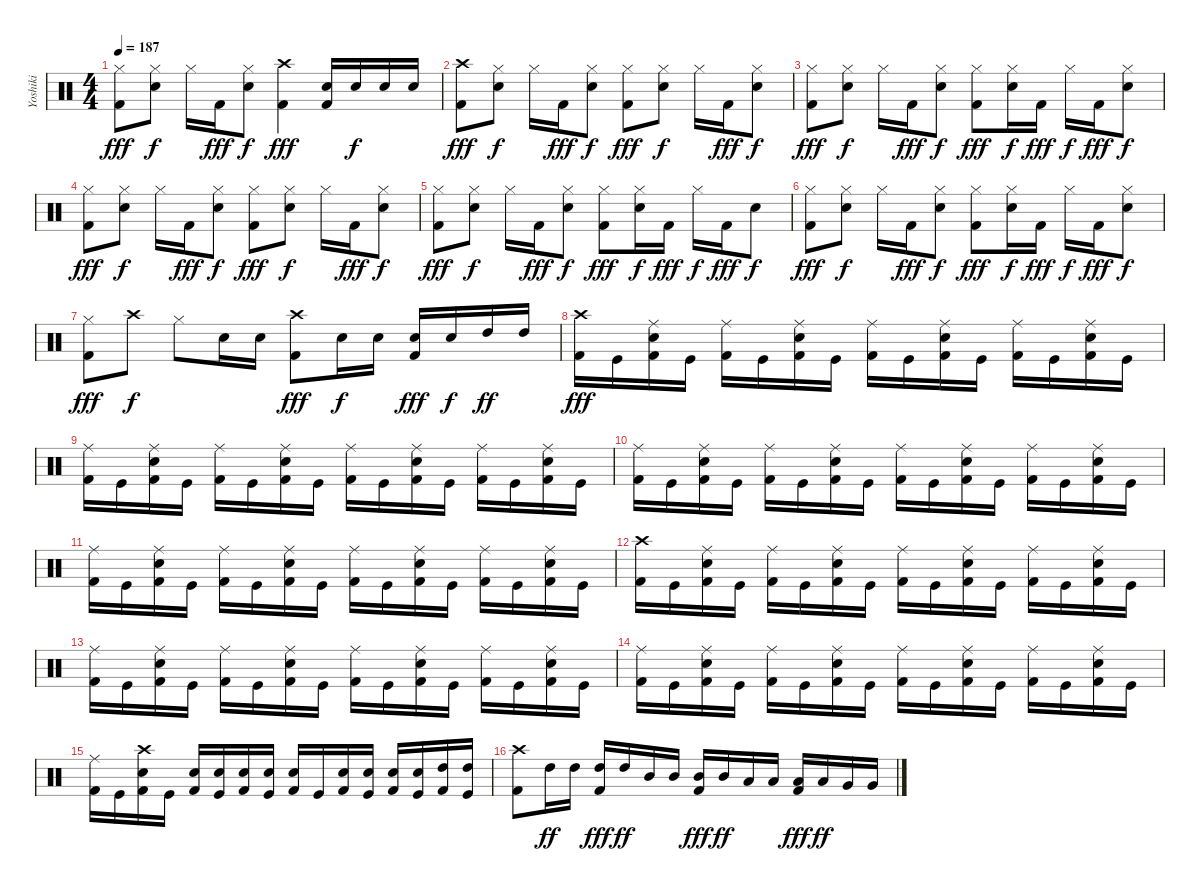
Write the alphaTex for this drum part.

\track ("Yoshiki" "Yoshiki") {instrument percussion}
\staff {score}
\articulation defaults
\ts (4 4)
\tempo 187
\clef neutral
\ks c
("Hi-Hat (closed)" "Kick (hit) 2").8{dy fff} ("Hi-Hat (closed)" "Electric Snare (hit)").8{dy f} "Hi-Hat (closed)".16 "Kick (hit) 2".16{dy fff} ("Hi-Hat (closed)" "Electric Snare (hit)").8{dy f} ("Crash high (hit)" "Kick (hit) 2").4{dy fff} ("Electric Snare (hit)" "Kick (hit) 2").16 "Electric Snare (hit)".16{dy f} "Electric Snare (hit)".16 "Electric Snare (hit)".16 |
("Crash high (hit)" "Kick (hit) 2").8{dy fff} ("Hi-Hat (closed)" "Electric Snare (hit)").8{dy f} "Hi-Hat (closed)".16 "Kick (hit) 2".16{dy fff} ("Hi-Hat (closed)" "Electric Snare (hit)").8{dy f} ("Hi-Hat (closed)" "Kick (hit) 2").8{dy fff} ("Hi-Hat (closed)" "Electric Snare (hit)").8{dy f} "Hi-Hat (closed)".16 "Kick (hit) 2".16{dy fff} ("Hi-Hat (closed)" "Electric Snare (hit)").8{dy f} |
("Hi-Hat (closed)" "Kick (hit) 2").8{dy fff} ("Hi-Hat (closed)" "Electric Snare (hit)").8{dy f} "Hi-Hat (closed)".16 "Kick (hit) 2".16{dy fff} ("Hi-Hat (closed)" "Electric Snare (hit)").8{dy f} ("Hi-Hat (closed)" "Kick (hit) 2").8{dy fff} ("Hi-Hat (closed)" "Electric Snare (hit)").16{dy f} "Kick (hit) 2".16{dy fff} "Hi-Hat (closed)".16{dy f} "Kick (hit) 2".16{dy fff} ("Hi-Hat (closed)" "Electric Snare (hit)").8{dy f} |
("Hi-Hat (closed)" "Kick (hit) 2").8{dy fff} ("Hi-Hat (closed)" "Electric Snare (hit)").8{dy f} "Hi-Hat (closed)".16 "Kick (hit) 2".16{dy fff} ("Hi-Hat (closed)" "Electric Snare (hit)").8{dy f} ("Hi-Hat (closed)" "Kick (hit) 2").8{dy fff} ("Hi-Hat (closed)" "Electric Snare (hit)").8{dy f} "Hi-Hat (closed)".16 "Kick (hit) 2".16{dy fff} ("Hi-Hat (closed)" "Electric Snare (hit)").8{dy f} |
("Hi-Hat (closed)" "Kick (hit) 2").8{dy fff} ("Hi-Hat (closed)" "Electric Snare (hit)").8{dy f} "Hi-Hat (closed)".16 "Kick (hit) 2".16{dy fff} ("Hi-Hat (closed)" "Electric Snare (hit)").8{dy f} ("Hi-Hat (closed)" "Kick (hit) 2").8{dy fff} ("Hi-Hat (closed)" "Electric Snare (hit)").16{dy f} "Kick (hit) 2".16{dy fff} "Hi-Hat (closed)".16{dy f} "Kick (hit) 2".16{dy fff} "Electric Snare (hit)".8{dy f} |
("Hi-Hat (closed)" "Kick (hit) 2").8{dy fff} ("Hi-Hat (closed)" "Electric Snare (hit)").8{dy f} "Hi-Hat (closed)".16 "Kick (hit) 2".16{dy fff} ("Hi-Hat (closed)" "Electric Snare (hit)").8{dy f} ("Hi-Hat (closed)" "Kick (hit) 2").8{dy fff} ("Hi-Hat (closed)" "Electric Snare (hit)").16{dy f} "Kick (hit) 2".16{dy fff} "Hi-Hat (closed)".16{dy f} "Kick (hit) 2".16{dy fff} ("Hi-Hat (closed)" "Electric Snare (hit)").8{dy f} |
("Hi-Hat (closed)" "Kick (hit) 2").8{dy fff} "Crash high (hit)".8{dy f} "Hi-Hat (closed)".8 "Electric Snare (hit)".16 "Electric Snare (hit)".16 ("Crash high (hit)" "Kick (hit) 2").8{dy fff} "Electric Snare (hit)".16{dy f} "Electric Snare (hit)".16 ("Electric Snare (hit)" "Kick (hit) 2").16{dy fff} "Electric Snare (hit)".16{dy f} "High Tom (hit)".16{dy ff} "High Tom (hit)".16 |
("Crash high (hit)" "Kick (hit) 2").16{dy fff} "Kick (hit)".16 ("Ride (middle)" "Electric Snare (hit)" "Kick (hit) 2").16 "Kick (hit)".16 ("Ride (middle)" "Kick (hit) 2").16 "Kick (hit)".16 ("Ride (middle)" "Electric Snare (hit)" "Kick (hit) 2").16 "Kick (hit)".16 ("Ride (middle)" "Kick (hit) 2").16 "Kick (hit)".16 ("Ride (middle)" "Electric Snare (hit)" "Kick (hit) 2").16 "Kick (hit)".16 ("Ride (middle)" "Kick (hit) 2").16 "Kick (hit)".16 ("Ride (middle)" "Electric Snare (hit)" "Kick (hit) 2").16 "Kick (hit)".16 |
("Ride (middle)" "Kick (hit) 2").16 "Kick (hit)".16 ("Ride (middle)" "Electric Snare (hit)" "Kick (hit) 2").16 "Kick (hit)".16 ("Ride (middle)" "Kick (hit) 2").16 "Kick (hit)".16 ("Ride (middle)" "Electric Snare (hit)" "Kick (hit) 2").16 "Kick (hit)".16 ("Ride (middle)" "Kick (hit) 2").16 "Kick (hit)".16 ("Ride (middle)" "Electric Snare (hit)" "Kick (hit) 2").16 "Kick (hit)".16 ("Ride (middle)" "Kick (hit) 2").16 "Kick (hit)".16 ("Ride (middle)" "Electric Snare (hit)" "Kick (hit) 2").16 "Kick (hit)".16 |
("Ride (middle)" "Kick (hit) 2").16 "Kick (hit)".16 ("Ride (middle)" "Electric Snare (hit)" "Kick (hit) 2").16 "Kick (hit)".16 ("Ride (middle)" "Kick (hit) 2").16 "Kick (hit)".16 ("Ride (middle)" "Electric Snare (hit)" "Kick (hit) 2").16 "Kick (hit)".16 ("Ride (middle)" "Kick (hit) 2").16 "Kick (hit)".16 ("Ride (middle)" "Electric Snare (hit)" "Kick (hit) 2").16 "Kick (hit)".16 ("Ride (middle)" "Kick (hit) 2").16 "Kick (hit)".16 ("Ride (middle)" "Electric Snare (hit)" "Kick (hit) 2").16 "Kick (hit)".16 |
("Ride (middle)" "Kick (hit) 2").16 "Kick (hit)".16 ("Ride (middle)" "Electric Snare (hit)" "Kick (hit) 2").16 "Kick (hit)".16 ("Ride (middle)" "Kick (hit) 2").16 "Kick (hit)".16 ("Ride (middle)" "Electric Snare (hit)" "Kick (hit) 2").16 "Kick (hit)".16 ("Ride (middle)" "Kick (hit) 2").16 "Kick (hit)".16 ("Ride (middle)" "Electric Snare (hit)" "Kick (hit) 2").16 "Kick (hit)".16 ("Ride (middle)" "Kick (hit) 2").16 "Kick (hit)".16 ("Ride (middle)" "Electric Snare (hit)" "Kick (hit) 2").16 "Kick (hit)".16 |
("Crash high (hit)" "Kick (hit) 2").16 "Kick (hit)".16 ("Ride (middle)" "Electric Snare (hit)" "Kick (hit) 2").16 "Kick (hit)".16 ("Ride (middle)" "Kick (hit) 2").16 "Kick (hit)".16 ("Ride (middle)" "Electric Snare (hit)" "Kick (hit) 2").16 "Kick (hit)".16 ("Ride (middle)" "Kick (hit) 2").16 "Kick (hit)".16 ("Ride (middle)" "Electric Snare (hit)" "Kick (hit) 2").16 "Kick (hit)".16 ("Ride (middle)" "Kick (hit) 2").16 "Kick (hit)".16 ("Ride (middle)" "Electric Snare (hit)" "Kick (hit) 2").16 "Kick (hit)".16 |
("Ride (middle)" "Kick (hit) 2").16 "Kick (hit)".16 ("Ride (middle)" "Electric Snare (hit)" "Kick (hit) 2").16 "Kick (hit)".16 ("Ride (middle)" "Kick (hit) 2").16 "Kick (hit)".16 ("Ride (middle)" "Electric Snare (hit)" "Kick (hit) 2").16 "Kick (hit)".16 ("Ride (middle)" "Kick (hit) 2").16 "Kick (hit)".16 ("Ride (middle)" "Electric Snare (hit)" "Kick (hit) 2").16 "Kick (hit)".16 ("Ride (middle)" "Kick (hit) 2").16 "Kick (hit)".16 ("Ride (middle)" "Electric Snare (hit)" "Kick (hit) 2").16 "Kick (hit)".16 |
("Ride (middle)" "Kick (hit) 2").16 "Kick (hit)".16 ("Ride (middle)" "Electric Snare (hit)" "Kick (hit) 2").16 "Kick (hit)".16 ("Ride (middle)" "Kick (hit) 2").16 "Kick (hit)".16 ("Ride (middle)" "Electric Snare (hit)" "Kick (hit) 2").16 "Kick (hit)".16 ("Ride (middle)" "Kick (hit) 2").16 "Kick (hit)".16 ("Ride (middle)" "Electric Snare (hit)" "Kick (hit) 2").16 "Kick (hit)".16 ("Ride (middle)" "Kick (hit) 2").16 "Kick (hit)".16 ("Ride (middle)" "Electric Snare (hit)" "Kick (hit) 2").16 "Kick (hit)".16 |
("Ride (middle)" "Kick (hit) 2").16 "Kick (hit)".16 ("Crash high (hit)" "Electric Snare (hit)" "Kick (hit) 2").16 "Kick (hit)".16 ("Electric Snare (hit)" "Kick (hit) 2").16 ("Electric Snare (hit)" "Kick (hit)").16 ("Electric Snare (hit)" "Kick (hit) 2").16 ("Electric Snare (hit)" "Kick (hit)").16 ("Electric Snare (hit)" "Kick (hit) 2").16 "Kick (hit)".16 ("Electric Snare (hit)" "Kick (hit) 2").16 ("Electric Snare (hit)" "Kick (hit)").16 ("Electric Snare (hit)" "Kick (hit) 2").16 ("Electric Snare (hit)" "Kick (hit)").16 ("High Tom (hit)" "Kick (hit) 2").16 ("High Tom (hit)" "Kick (hit)").16 |
("Crash high (hit)" "Kick (hit) 2").8 "High Tom (hit)".16{dy ff} "High Tom (hit)".16 ("High Tom (hit)" "Kick (hit) 2").16{dy fff} "High Tom (hit)".16{dy ff} "Mid Tom (hit)".16 "Mid Tom (hit)".16 ("Mid Tom (hit)" "Kick (hit) 2").16{dy fff} "Mid Tom (hit)".16{dy ff} "Low Tom (hit)".16 "Low Tom (hit)".16 ("Low Tom (hit)" "Kick (hit) 2").16{dy fff} "Low Tom (hit)".16{dy ff} "Very Low Tom (hit)".16 "Very Low Tom (hit)".16
